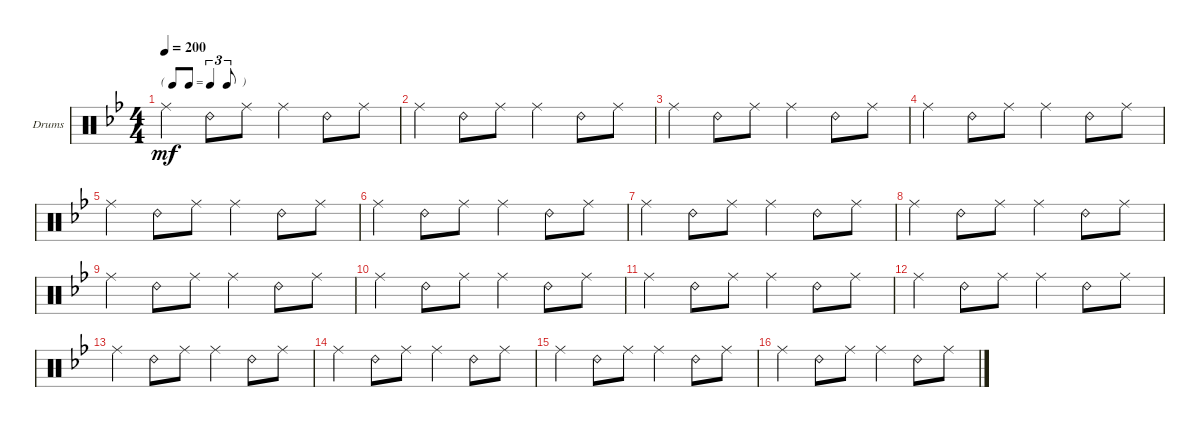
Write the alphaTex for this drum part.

\defaultSystemsLayout 4
\bracketExtendMode groupsimilarinstruments
\firstSystemTrackNameOrientation horizontal
\otherSystemsTrackNameOrientation horizontal
\track ("Drumkit" "Drums") {instrument percussion}
\staff {score}
\articulation defaults
\ts (4 4)
\tf triplet8th
\tempo 200
\clef neutral
\scale
0.513043
\ks bb "Ride (middle)".4{dy mf} "Ride (bell) 2".8 "Ride (middle)".8 "Ride (middle)".4 "Ride (bell) 2".8 "Ride (middle)".8
|
\scale
0.243478 "Ride (middle)".4 "Ride (bell) 2".8 "Ride (middle)".8 "Ride (middle)".4 "Ride (bell) 2".8 "Ride (middle)".8 |
\scale
0.243478 "Ride (middle)".4 "Ride (bell) 2".8 "Ride (middle)".8 "Ride (middle)".4 "Ride (bell) 2".8 "Ride (middle)".8 |
\scale
0.333333 "Ride (middle)".4 "Ride (bell) 2".8 "Ride (middle)".8 "Ride (middle)".4 "Ride (bell) 2".8 "Ride (middle)".8 |
\scale
0.333333 "Ride (middle)".4 "Ride (bell) 2".8 "Ride (middle)".8 "Ride (middle)".4 "Ride (bell) 2".8 "Ride (middle)".8 |
\scale
0.333333 "Ride (middle)".4 "Ride (bell) 2".8 "Ride (middle)".8 "Ride (middle)".4 "Ride (bell) 2".8 "Ride (middle)".8 |
\scale
0.333333 "Ride (middle)".4 "Ride (bell) 2".8 "Ride (middle)".8 "Ride (middle)".4 "Ride (bell) 2".8 "Ride (middle)".8 |
\scale
0.333333 "Ride (middle)".4 "Ride (bell) 2".8 "Ride (middle)".8 "Ride (middle)".4 "Ride (bell) 2".8 "Ride (middle)".8 |
\scale
0.333333 "Ride (middle)".4 "Ride (bell) 2".8 "Ride (middle)".8 "Ride (middle)".4 "Ride (bell) 2".8 "Ride (middle)".8 |
\scale
0.333333 "Ride (middle)".4 "Ride (bell) 2".8 "Ride (middle)".8 "Ride (middle)".4 "Ride (bell) 2".8 "Ride (middle)".8 |
\scale
0.333333 "Ride (middle)".4 "Ride (bell) 2".8 "Ride (middle)".8 "Ride (middle)".4 "Ride (bell) 2".8 "Ride (middle)".8 |
\scale
0.333333 "Ride (middle)".4 "Ride (bell) 2".8 "Ride (middle)".8 "Ride (middle)".4 "Ride (bell) 2".8 "Ride (middle)".8 |
\scale
0.333333 "Ride (middle)".4 "Ride (bell) 2".8 "Ride (middle)".8 "Ride (middle)".4 "Ride (bell) 2".8 "Ride (middle)".8 |
"Ride (middle)".4 "Ride (bell) 2".8 "Ride (middle)".8 "Ride (middle)".4 "Ride (bell) 2".8 "Ride (middle)".8 |
"Ride (middle)".4 "Ride (bell) 2".8 "Ride (middle)".8 "Ride (middle)".4 "Ride (bell) 2".8 "Ride (middle)".8 |
"Ride (middle)".4 "Ride (bell) 2".8 "Ride (middle)".8 "Ride (middle)".4 "Ride (bell) 2".8 "Ride (middle)".8
